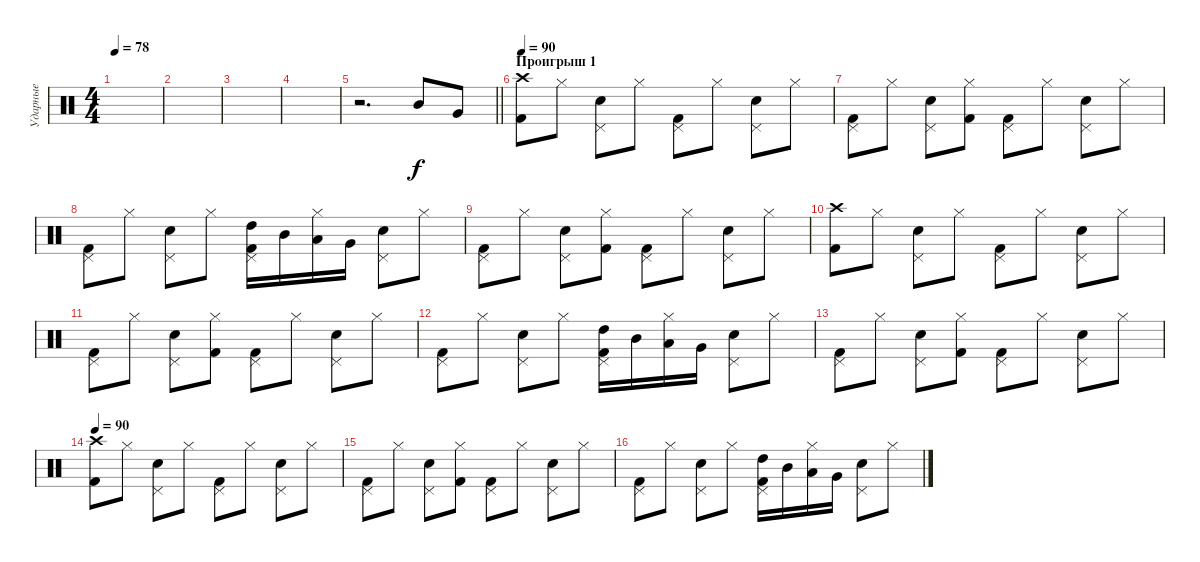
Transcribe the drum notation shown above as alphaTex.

\track ("Ударные" "Ударные") {instrument percussion}
\staff {score}
\articulation defaults
\ts (4 4)
\tempo 78
\clef neutral
\ks c
|
|
|
|
\barLineRight lightlight
r.2{d} "Mid Tom (hit)".8 "Very Low Tom (hit)".8 |
\section ("" "Проигрыш 1")
\tempo 90
("Crash high (hit)" "Kick (hit) 2").8 "Hi-Hat (closed)".8 ("Pedal Hi-Hat (hit)" "Snare (hit) 2").8 "Hi-Hat (closed)".8 ("Pedal Hi-Hat (hit)" "Kick (hit) 2").8 "Hi-Hat (closed)".8 ("Pedal Hi-Hat (hit)" "Snare (hit) 2").8 "Hi-Hat (closed)".8 |
("Pedal Hi-Hat (hit)" "Kick (hit) 2").8 "Hi-Hat (closed)".8 ("Pedal Hi-Hat (hit)" "Snare (hit) 2").8 ("Hi-Hat (closed)" "Kick (hit) 2").8 ("Pedal Hi-Hat (hit)" "Kick (hit) 2").8 "Hi-Hat (closed)".8 ("Pedal Hi-Hat (hit)" "Snare (hit) 2").8 "Hi-Hat (closed)".8 |
("Pedal Hi-Hat (hit)" "Kick (hit) 2").8 "Hi-Hat (closed)".8 ("Pedal Hi-Hat (hit)" "Snare (hit) 2").8 "Hi-Hat (closed)".8 ("Pedal Hi-Hat (hit)" "High Tom (hit)" "Kick (hit) 2").16 "Mid Tom (hit)".16 ("Hi-Hat (closed)" "Low Tom (hit)").16 "Very Low Tom (hit)".16 ("Pedal Hi-Hat (hit)" "Snare (hit) 2").8 "Hi-Hat (closed)".8 |
("Pedal Hi-Hat (hit)" "Kick (hit) 2").8 "Hi-Hat (closed)".8 ("Pedal Hi-Hat (hit)" "Snare (hit) 2").8 ("Hi-Hat (closed)" "Kick (hit) 2").8 ("Pedal Hi-Hat (hit)" "Kick (hit) 2").8 "Hi-Hat (closed)".8 ("Pedal Hi-Hat (hit)" "Snare (hit) 2").8 "Hi-Hat (closed)".8 |
("Crash high (hit)" "Kick (hit) 2").8 "Hi-Hat (closed)".8 ("Pedal Hi-Hat (hit)" "Snare (hit) 2").8 "Hi-Hat (closed)".8 ("Pedal Hi-Hat (hit)" "Kick (hit) 2").8 "Hi-Hat (closed)".8 ("Pedal Hi-Hat (hit)" "Snare (hit) 2").8 "Hi-Hat (closed)".8 |
("Pedal Hi-Hat (hit)" "Kick (hit) 2").8 "Hi-Hat (closed)".8 ("Pedal Hi-Hat (hit)" "Snare (hit) 2").8 ("Hi-Hat (closed)" "Kick (hit) 2").8 ("Pedal Hi-Hat (hit)" "Kick (hit) 2").8 "Hi-Hat (closed)".8 ("Pedal Hi-Hat (hit)" "Snare (hit) 2").8 "Hi-Hat (closed)".8 |
("Pedal Hi-Hat (hit)" "Kick (hit) 2").8 "Hi-Hat (closed)".8 ("Pedal Hi-Hat (hit)" "Snare (hit) 2").8 "Hi-Hat (closed)".8 ("Pedal Hi-Hat (hit)" "High Tom (hit)" "Kick (hit) 2").16 "Mid Tom (hit)".16 ("Hi-Hat (closed)" "Low Tom (hit)").16 "Very Low Tom (hit)".16 ("Pedal Hi-Hat (hit)" "Snare (hit) 2").8 "Hi-Hat (closed)".8 |
("Pedal Hi-Hat (hit)" "Kick (hit) 2").8 "Hi-Hat (closed)".8 ("Pedal Hi-Hat (hit)" "Snare (hit) 2").8 ("Hi-Hat (closed)" "Kick (hit) 2").8 ("Pedal Hi-Hat (hit)" "Kick (hit) 2").8 "Hi-Hat (closed)".8 ("Pedal Hi-Hat (hit)" "Snare (hit) 2").8 "Hi-Hat (closed)".8 |
\tempo 90
("Crash high (hit)" "Kick (hit) 2").8 "Hi-Hat (closed)".8 ("Pedal Hi-Hat (hit)" "Snare (hit) 2").8 "Hi-Hat (closed)".8 ("Pedal Hi-Hat (hit)" "Kick (hit) 2").8 "Hi-Hat (closed)".8 ("Pedal Hi-Hat (hit)" "Snare (hit) 2").8 "Hi-Hat (closed)".8 |
("Pedal Hi-Hat (hit)" "Kick (hit) 2").8 "Hi-Hat (closed)".8 ("Pedal Hi-Hat (hit)" "Snare (hit) 2").8 ("Hi-Hat (closed)" "Kick (hit) 2").8 ("Pedal Hi-Hat (hit)" "Kick (hit) 2").8 "Hi-Hat (closed)".8 ("Pedal Hi-Hat (hit)" "Snare (hit) 2").8 "Hi-Hat (closed)".8 |
("Pedal Hi-Hat (hit)" "Kick (hit) 2").8 "Hi-Hat (closed)".8 ("Pedal Hi-Hat (hit)" "Snare (hit) 2").8 "Hi-Hat (closed)".8 ("Pedal Hi-Hat (hit)" "High Tom (hit)" "Kick (hit) 2").16 "Mid Tom (hit)".16 ("Hi-Hat (closed)" "Low Tom (hit)").16 "Very Low Tom (hit)".16 ("Pedal Hi-Hat (hit)" "Snare (hit) 2").8 "Hi-Hat (closed)".8
